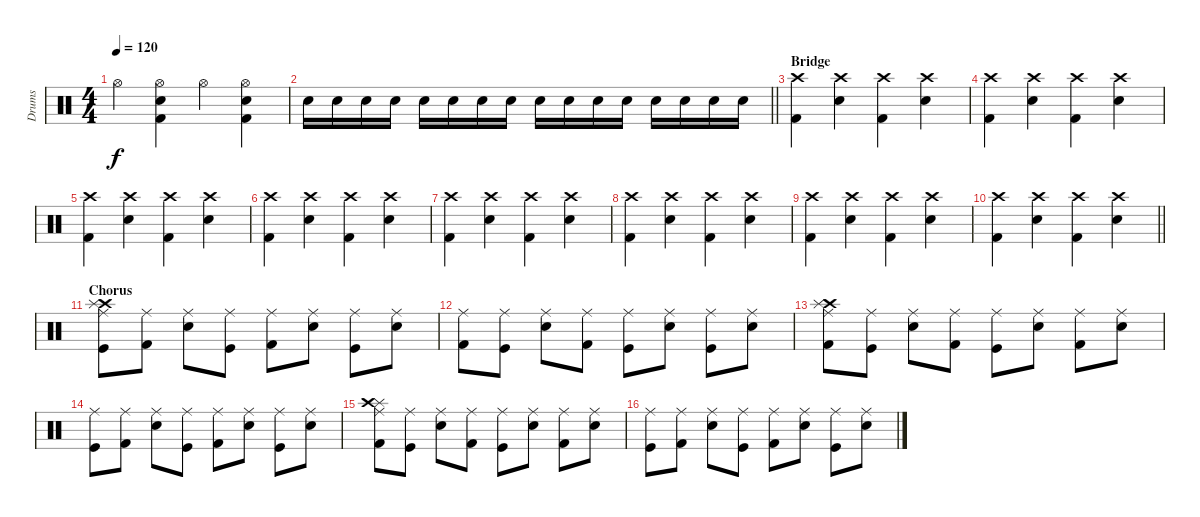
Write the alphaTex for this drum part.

\track ("Drums" "Drums") {instrument percussion}
\staff {score}
\articulation defaults
\ts (4 4)
\tempo 120
\clef neutral
\ks c "Hi-Hat (open)".4{dy f}
("Kick (hit) 2" "Snare (hit) 2" "Hi-Hat (open)").4 "Hi-Hat (open)".4 ("Kick (hit) 2" "Snare (hit) 2" "Hi-Hat (open)").4 |
\barLineRight lightlight "Snare (hit) 2".16 "Snare (hit) 2".16 "Snare (hit) 2".16 "Snare (hit) 2".16 "Snare (hit) 2".16 "Snare (hit) 2".16 "Snare (hit) 2".16 "Snare (hit) 2".16 "Snare (hit) 2".16 "Snare (hit) 2".16 "Snare (hit) 2".16 "Snare (hit) 2".16 "Snare (hit) 2".16 "Snare (hit) 2".16 "Snare (hit) 2".16 "Snare (hit) 2".16
|
\section ("" "Bridge")
("Kick (hit) 2" "Crash high (hit)").4 ("Snare (hit) 2" "Crash high (hit)").4 ("Kick (hit) 2" "Crash high (hit)").4 ("Snare (hit) 2" "Crash high (hit)").4 |
("Kick (hit) 2" "Crash high (hit)").4 ("Snare (hit) 2" "Crash high (hit)").4 ("Kick (hit) 2" "Crash high (hit)").4 ("Snare (hit) 2" "Crash high (hit)").4 |
("Kick (hit) 2" "Crash high (hit)").4 ("Snare (hit) 2" "Crash high (hit)").4 ("Kick (hit) 2" "Crash high (hit)").4 ("Snare (hit) 2" "Crash high (hit)").4 |
("Kick (hit) 2" "Crash high (hit)").4 ("Snare (hit) 2" "Crash high (hit)").4 ("Kick (hit) 2" "Crash high (hit)").4 ("Snare (hit) 2" "Crash high (hit)").4 |
("Kick (hit) 2" "Crash high (hit)").4 ("Snare (hit) 2" "Crash high (hit)").4 ("Kick (hit) 2" "Crash high (hit)").4 ("Snare (hit) 2" "Crash high (hit)").4 |
("Kick (hit) 2" "Crash high (hit)").4 ("Snare (hit) 2" "Crash high (hit)").4 ("Kick (hit) 2" "Crash high (hit)").4 ("Snare (hit) 2" "Crash high (hit)").4 |
("Kick (hit) 2" "Crash high (hit)").4 ("Snare (hit) 2" "Crash high (hit)").4 ("Kick (hit) 2" "Crash high (hit)").4 ("Snare (hit) 2" "Crash high (hit)").4 |
\barLineRight lightlight
("Kick (hit) 2" "Crash high (hit)").4 ("Snare (hit) 2" "Crash high (hit)").4 ("Kick (hit) 2" "Crash high (hit)").4 ("Snare (hit) 2" "Crash high (hit)").4 |
\section ("" "Chorus")
("Kick (hit)" "Crash high (hit)" "Splash (hit)" "Ride (middle)").8 ("Kick (hit) 2" "Ride (middle)").8 ("Snare (hit) 2" "Ride (middle)").8 ("Kick (hit)" "Ride (middle)").8 ("Kick (hit) 2" "Ride (middle)").8 ("Snare (hit) 2" "Ride (middle)").8 ("Kick (hit)" "Ride (middle)").8 ("Snare (hit) 2" "Ride (middle)").8 |
("Kick (hit) 2" "Ride (middle)").8 ("Kick (hit)" "Ride (middle)").8 ("Snare (hit) 2" "Ride (middle)").8 ("Kick (hit) 2" "Ride (middle)").8 ("Kick (hit)" "Ride (middle)").8 ("Snare (hit) 2" "Ride (middle)").8 ("Kick (hit)" "Ride (middle)").8 ("Snare (hit) 2" "Ride (middle)").8 |
("Kick (hit) 2" "Crash high (hit)" "Splash (hit)" "Ride (middle)").8 ("Kick (hit)" "Ride (middle)").8 ("Snare (hit) 2" "Ride (middle)").8 ("Kick (hit) 2" "Ride (middle)").8 ("Kick (hit)" "Ride (middle)").8 ("Snare (hit) 2" "Ride (middle)").8 ("Kick (hit) 2" "Ride (middle)").8 ("Snare (hit) 2" "Ride (middle)").8 |
("Kick (hit)" "Ride (middle)").8 ("Kick (hit) 2" "Ride (middle)").8 ("Snare (hit) 2" "Ride (middle)").8 ("Kick (hit)" "Ride (middle)").8 ("Kick (hit) 2" "Ride (middle)").8 ("Snare (hit) 2" "Ride (middle)").8 ("Kick (hit)" "Ride (middle)").8 ("Snare (hit) 2" "Ride (middle)").8 |
("Kick (hit) 2" "Splash (hit)" "Crash high (hit)" "Ride (middle)").8 ("Kick (hit)" "Ride (middle)").8 ("Snare (hit) 2" "Ride (middle)").8 ("Kick (hit) 2" "Ride (middle)").8 ("Kick (hit)" "Ride (middle)").8 ("Snare (hit) 2" "Ride (middle)").8 ("Kick (hit) 2" "Ride (middle)").8 ("Snare (hit) 2" "Ride (middle)").8 |
("Kick (hit)" "Ride (middle)").8 ("Kick (hit) 2" "Ride (middle)").8 ("Snare (hit) 2" "Ride (middle)").8 ("Kick (hit)" "Ride (middle)").8 ("Kick (hit) 2" "Ride (middle)").8 ("Snare (hit) 2" "Ride (middle)").8 ("Kick (hit)" "Ride (middle)").8 ("Snare (hit) 2" "Ride (middle)").8
